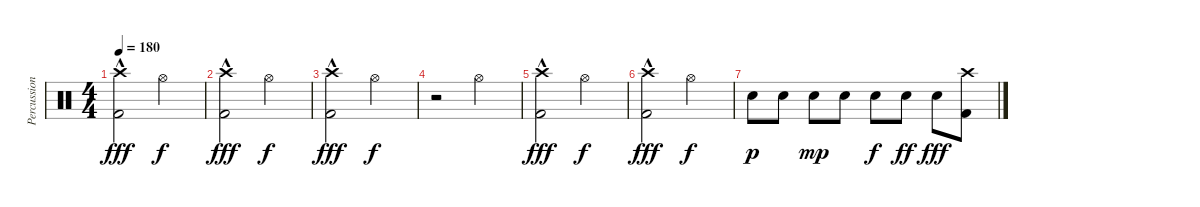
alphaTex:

\track ("Percussion" "Percussion") {instrument percussion}
\staff
\articulation defaults
\ts (4 4)
\tempo 180
\clef neutral
\ks c
("Crash high (hit)"{hac} "Kick (hit) 2"{hac}).2{dy fff} "Hi-Hat (open)".2{dy f} |
("Crash high (hit)"{hac} "Kick (hit) 2"{hac}).2{dy fff} "Hi-Hat (open)".2{dy f} |
("Crash high (hit)"{hac} "Kick (hit) 2"{hac}).2{dy fff} "Hi-Hat (open)".2{dy f} |
r.2 "Hi-Hat (open)".2 |
("Crash high (hit)"{hac} "Kick (hit) 2"{hac}).2{dy fff} "Hi-Hat (open)".2{dy f} |
("Crash high (hit)"{hac} "Kick (hit) 2"{hac}).2{dy fff} "Hi-Hat (open)".2{dy f} |
"Electric Snare (hit)".8{dy p} "Electric Snare (hit)".8 "Electric Snare (hit)".8{dy mp} "Electric Snare (hit)".8 "Electric Snare (hit)".8{dy f} "Electric Snare (hit)".8{dy ff} "Electric Snare (hit)".8{dy fff} ("Crash high (hit)" "Kick (hit) 2").8
